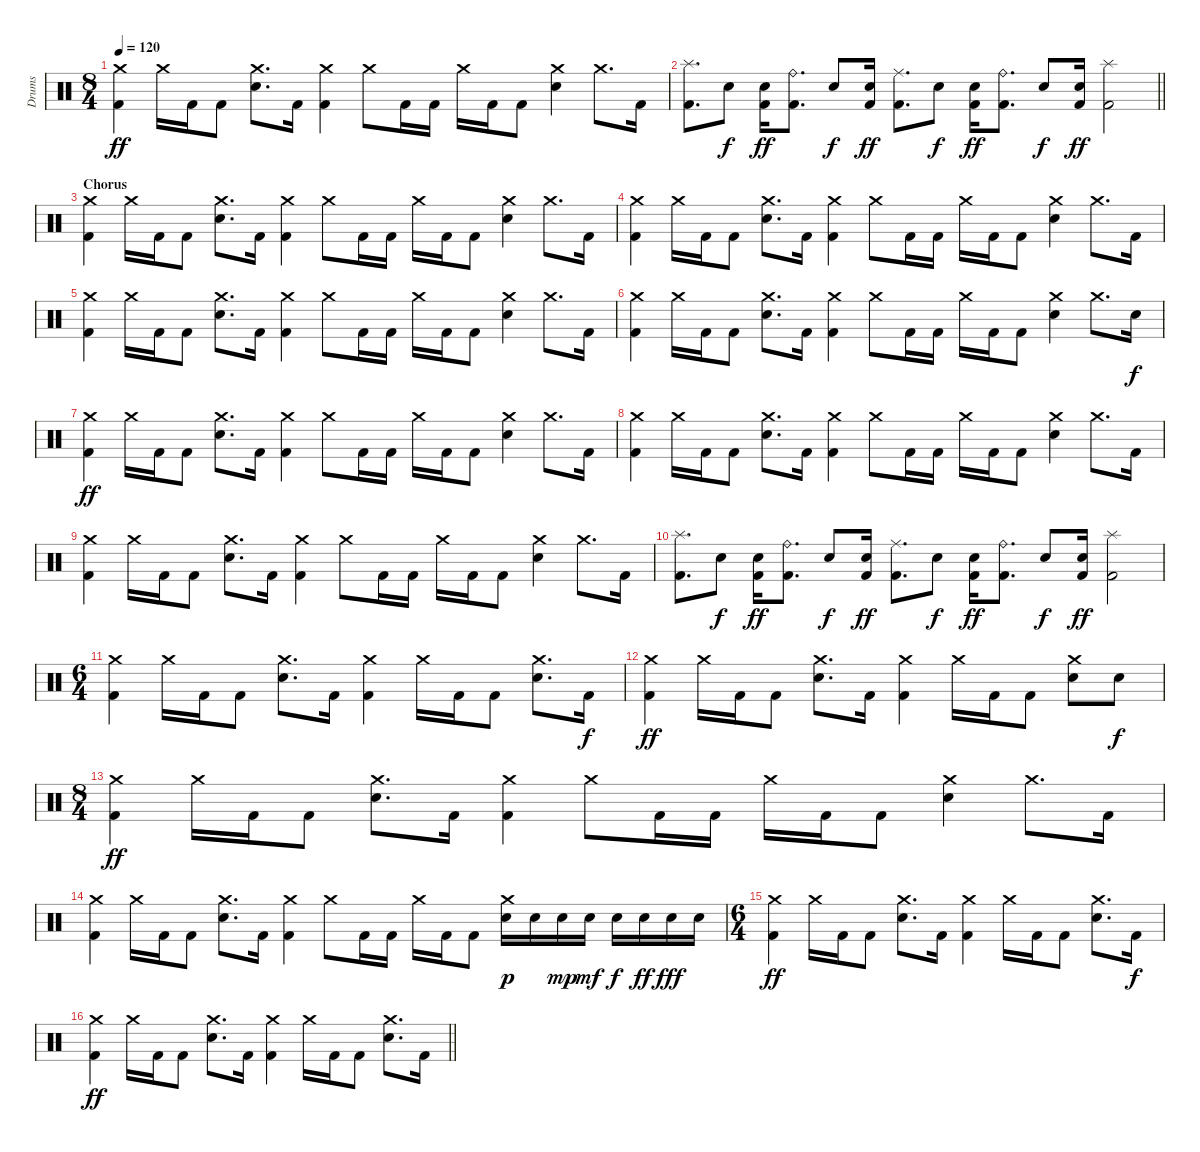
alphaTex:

\track ("Drums" "Drums") {instrument percussion}
\staff {score}
\articulation defaults
\ts (8 4)
\tempo 120
\clef neutral
\ks c
("Crash medium (hit)" "Kick (hit) 2").4{dy ff} "Crash medium (hit)".16 "Kick (hit) 2".16 "Kick (hit) 2".8 ("Crash medium (hit)" "Electric Snare (hit)").8{d} "Kick (hit) 2".16 ("Crash medium (hit)" "Kick (hit) 2").4 "Crash medium (hit)".8 "Kick (hit) 2".16 "Kick (hit) 2".16 "Crash medium (hit)".16 "Kick (hit) 2".16 "Kick (hit) 2".8 ("Crash medium (hit)" "Electric Snare (hit)").4 "Crash medium (hit)".8{d} "Kick (hit) 2".16 |
\barLineRight lightlight
("Splash (hit)" "Kick (hit) 2").8{d} "Electric Snare (hit)".8{dy f} ("Electric Snare (hit)" "Kick (hit) 2").16{dy ff} ("Ride (bell)" "Kick (hit) 2").8{d} "Electric Snare (hit)".8{dy f} ("Electric Snare (hit)" "Kick (hit) 2").16{dy ff} ("Ride (middle)" "Kick (hit) 2").8{d} "Electric Snare (hit)".8{dy f} ("Electric Snare (hit)" "Kick (hit) 2").16{dy ff} ("Ride (bell)" "Kick (hit) 2").8{d} "Electric Snare (hit)".8{dy f} ("Electric Snare (hit)" "Kick (hit) 2").16{dy ff} ("Splash (hit)" "Kick (hit) 2").2 |
\section ("" "Chorus")
("Crash medium (hit)" "Kick (hit) 2").4 "Crash medium (hit)".16 "Kick (hit) 2".16 "Kick (hit) 2".8 ("Crash medium (hit)" "Electric Snare (hit)").8{d} "Kick (hit) 2".16 ("Crash medium (hit)" "Kick (hit) 2").4 "Crash medium (hit)".8 "Kick (hit) 2".16 "Kick (hit) 2".16 "Crash medium (hit)".16 "Kick (hit) 2".16 "Kick (hit) 2".8 ("Crash medium (hit)" "Electric Snare (hit)").4 "Crash medium (hit)".8{d} "Kick (hit) 2".16 |
("Crash medium (hit)" "Kick (hit) 2").4 "Crash medium (hit)".16 "Kick (hit) 2".16 "Kick (hit) 2".8 ("Crash medium (hit)" "Electric Snare (hit)").8{d} "Kick (hit) 2".16 ("Crash medium (hit)" "Kick (hit) 2").4 "Crash medium (hit)".8 "Kick (hit) 2".16 "Kick (hit) 2".16 "Crash medium (hit)".16 "Kick (hit) 2".16 "Kick (hit) 2".8 ("Crash medium (hit)" "Electric Snare (hit)").4 "Crash medium (hit)".8{d} "Kick (hit) 2".16 |
("Crash medium (hit)" "Kick (hit) 2").4 "Crash medium (hit)".16 "Kick (hit) 2".16 "Kick (hit) 2".8 ("Crash medium (hit)" "Electric Snare (hit)").8{d} "Kick (hit) 2".16 ("Crash medium (hit)" "Kick (hit) 2").4 "Crash medium (hit)".8 "Kick (hit) 2".16 "Kick (hit) 2".16 "Crash medium (hit)".16 "Kick (hit) 2".16 "Kick (hit) 2".8 ("Crash medium (hit)" "Electric Snare (hit)").4 "Crash medium (hit)".8{d} "Kick (hit) 2".16 |
("Crash medium (hit)" "Kick (hit) 2").4 "Crash medium (hit)".16 "Kick (hit) 2".16 "Kick (hit) 2".8 ("Crash medium (hit)" "Electric Snare (hit)").8{d} "Kick (hit) 2".16 ("Crash medium (hit)" "Kick (hit) 2").4 "Crash medium (hit)".8 "Kick (hit) 2".16 "Kick (hit) 2".16 "Crash medium (hit)".16 "Kick (hit) 2".16 "Kick (hit) 2".8 ("Crash medium (hit)" "Electric Snare (hit)").4 "Crash medium (hit)".8{d} "Electric Snare (hit)".16{dy f} |
("Crash medium (hit)" "Kick (hit) 2").4{dy ff} "Crash medium (hit)".16 "Kick (hit) 2".16 "Kick (hit) 2".8 ("Crash medium (hit)" "Electric Snare (hit)").8{d} "Kick (hit) 2".16 ("Crash medium (hit)" "Kick (hit) 2").4 "Crash medium (hit)".8 "Kick (hit) 2".16 "Kick (hit) 2".16 "Crash medium (hit)".16 "Kick (hit) 2".16 "Kick (hit) 2".8 ("Crash medium (hit)" "Electric Snare (hit)").4 "Crash medium (hit)".8{d} "Kick (hit) 2".16 |
("Crash medium (hit)" "Kick (hit) 2").4 "Crash medium (hit)".16 "Kick (hit) 2".16 "Kick (hit) 2".8 ("Crash medium (hit)" "Electric Snare (hit)").8{d} "Kick (hit) 2".16 ("Crash medium (hit)" "Kick (hit) 2").4 "Crash medium (hit)".8 "Kick (hit) 2".16 "Kick (hit) 2".16 "Crash medium (hit)".16 "Kick (hit) 2".16 "Kick (hit) 2".8 ("Crash medium (hit)" "Electric Snare (hit)").4 "Crash medium (hit)".8{d} "Kick (hit) 2".16 |
("Crash medium (hit)" "Kick (hit) 2").4 "Crash medium (hit)".16 "Kick (hit) 2".16 "Kick (hit) 2".8 ("Crash medium (hit)" "Electric Snare (hit)").8{d} "Kick (hit) 2".16 ("Crash medium (hit)" "Kick (hit) 2").4 "Crash medium (hit)".8 "Kick (hit) 2".16 "Kick (hit) 2".16 "Crash medium (hit)".16 "Kick (hit) 2".16 "Kick (hit) 2".8 ("Crash medium (hit)" "Electric Snare (hit)").4 "Crash medium (hit)".8{d} "Kick (hit) 2".16 |
("Splash (hit)" "Kick (hit) 2").8{d} "Electric Snare (hit)".8{dy f} ("Electric Snare (hit)" "Kick (hit) 2").16{dy ff} ("Ride (bell)" "Kick (hit) 2").8{d} "Electric Snare (hit)".8{dy f} ("Electric Snare (hit)" "Kick (hit) 2").16{dy ff} ("Ride (middle)" "Kick (hit) 2").8{d} "Electric Snare (hit)".8{dy f} ("Electric Snare (hit)" "Kick (hit) 2").16{dy ff} ("Ride (bell)" "Kick (hit) 2").8{d} "Electric Snare (hit)".8{dy f} ("Electric Snare (hit)" "Kick (hit) 2").16{dy ff} ("Splash (hit)" "Kick (hit) 2").2 |
\ts (6 4)
("Crash medium (hit)" "Kick (hit) 2").4 "Crash medium (hit)".16 "Kick (hit) 2".16 "Kick (hit) 2".8 ("Crash medium (hit)" "Electric Snare (hit)").8{d} "Kick (hit) 2".16 ("Crash medium (hit)" "Kick (hit) 2").4 "Crash medium (hit)".16 "Kick (hit) 2".16 "Kick (hit) 2".8 ("Crash medium (hit)" "Electric Snare (hit)").8{d} "Kick (hit) 2".16{dy f} |
("Crash medium (hit)" "Kick (hit) 2").4{dy ff} "Crash medium (hit)".16 "Kick (hit) 2".16 "Kick (hit) 2".8 ("Crash medium (hit)" "Electric Snare (hit)").8{d} "Kick (hit) 2".16 ("Crash medium (hit)" "Kick (hit) 2").4 "Crash medium (hit)".16 "Kick (hit) 2".16 "Kick (hit) 2".8 ("Crash medium (hit)" "Electric Snare (hit)").8 "Electric Snare (hit)".8{dy f} |
\ts (8 4)
("Crash medium (hit)" "Kick (hit) 2").4{dy ff} "Crash medium (hit)".16 "Kick (hit) 2".16 "Kick (hit) 2".8 ("Crash medium (hit)" "Electric Snare (hit)").8{d} "Kick (hit) 2".16 ("Crash medium (hit)" "Kick (hit) 2").4 "Crash medium (hit)".8 "Kick (hit) 2".16 "Kick (hit) 2".16 "Crash medium (hit)".16 "Kick (hit) 2".16 "Kick (hit) 2".8 ("Crash medium (hit)" "Electric Snare (hit)").4 "Crash medium (hit)".8{d} "Kick (hit) 2".16 |
("Crash medium (hit)" "Kick (hit) 2").4 "Crash medium (hit)".16 "Kick (hit) 2".16 "Kick (hit) 2".8 ("Crash medium (hit)" "Electric Snare (hit)").8{d} "Kick (hit) 2".16 ("Crash medium (hit)" "Kick (hit) 2").4 "Crash medium (hit)".8 "Kick (hit) 2".16 "Kick (hit) 2".16 "Crash medium (hit)".16 "Kick (hit) 2".16 "Kick (hit) 2".8 ("Crash medium (hit)" "Electric Snare (hit)").16{dy p} "Electric Snare (hit)".16 "Electric Snare (hit)".16{dy mp} "Electric Snare (hit)".16{dy mf} "Electric Snare (hit)".16{dy f} "Electric Snare (hit)".16{dy ff} "Electric Snare (hit)".16{dy fff} "Electric Snare (hit)".16 |
\ts (6 4)
("Crash medium (hit)" "Kick (hit) 2").4{dy ff} "Crash medium (hit)".16 "Kick (hit) 2".16 "Kick (hit) 2".8 ("Crash medium (hit)" "Electric Snare (hit)").8{d} "Kick (hit) 2".16 ("Crash medium (hit)" "Kick (hit) 2").4 "Crash medium (hit)".16 "Kick (hit) 2".16 "Kick (hit) 2".8 ("Crash medium (hit)" "Electric Snare (hit)").8{d} "Kick (hit) 2".16{dy f} |
\barLineRight lightlight
("Crash medium (hit)" "Kick (hit) 2").4{dy ff} "Crash medium (hit)".16 "Kick (hit) 2".16 "Kick (hit) 2".8 ("Crash medium (hit)" "Electric Snare (hit)").8{d} "Kick (hit) 2".16 ("Crash medium (hit)" "Kick (hit) 2").4 "Crash medium (hit)".16 "Kick (hit) 2".16 "Kick (hit) 2".8 ("Crash medium (hit)" "Electric Snare (hit)").8{d} "Kick (hit) 2".16
